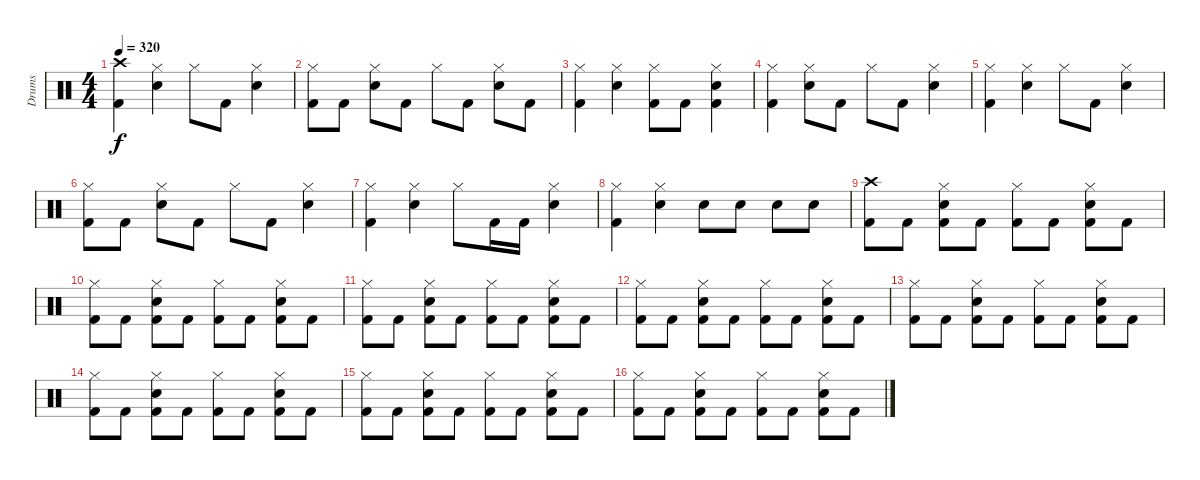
\track ("Drums" "Drums") {instrument percussion}
\staff {score}
\articulation defaults
\ts (4 4)
\tempo 320
\clef neutral
\ks c
("Kick (hit) 2" "Crash high (hit)").4{dy f} ("Snare (hit) 2" "Hi-Hat (closed)").4 "Hi-Hat (closed)".8 "Kick (hit) 2".8 ("Hi-Hat (closed)" "Snare (hit) 2").4 |
("Kick (hit) 2" "Hi-Hat (closed)").8 "Kick (hit) 2".8 ("Snare (hit) 2" "Hi-Hat (closed)").8 "Kick (hit) 2".8 "Hi-Hat (closed)".8 "Kick (hit) 2".8 ("Snare (hit) 2" "Hi-Hat (closed)").8 "Kick (hit) 2".8 |
("Kick (hit) 2" "Hi-Hat (closed)").4 ("Snare (hit) 2" "Hi-Hat (closed)").4 ("Hi-Hat (closed)" "Kick (hit) 2").8 "Kick (hit) 2".8 ("Snare (hit) 2" "Kick (hit) 2" "Hi-Hat (closed)").4 |
("Kick (hit) 2" "Hi-Hat (closed)").4 ("Hi-Hat (closed)" "Snare (hit) 2").8 "Kick (hit) 2".8 "Hi-Hat (closed)".8 "Kick (hit) 2".8 ("Hi-Hat (closed)" "Snare (hit) 2").4 |
("Kick (hit) 2" "Hi-Hat (closed)").4 ("Snare (hit) 2" "Hi-Hat (closed)").4 "Hi-Hat (closed)".8 "Kick (hit) 2".8 ("Snare (hit) 2" "Hi-Hat (closed)").4 |
("Kick (hit) 2" "Hi-Hat (closed)").8 "Kick (hit) 2".8 ("Snare (hit) 2" "Hi-Hat (closed)").8 "Kick (hit) 2".8 "Hi-Hat (closed)".8 "Kick (hit) 2".8 ("Hi-Hat (closed)" "Snare (hit) 2").4 |
("Kick (hit) 2" "Hi-Hat (closed)").4 ("Snare (hit) 2" "Hi-Hat (closed)").4 "Hi-Hat (closed)".8 "Kick (hit) 2".16 "Kick (hit) 2".16 ("Snare (hit) 2" "Hi-Hat (closed)").4 |
("Kick (hit) 2" "Hi-Hat (closed)").4 ("Snare (hit) 2" "Hi-Hat (closed)").4 "Snare (hit) 2".8 "Snare (hit) 2".8 "Snare (hit) 2".8 "Snare (hit) 2".8 |
("Kick (hit) 2" "Crash high (hit)").8 "Kick (hit) 2".8 ("Snare (hit) 2" "Hi-Hat (closed)" "Kick (hit) 2").8 "Kick (hit) 2".8 ("Hi-Hat (closed)" "Kick (hit) 2").8 "Kick (hit) 2".8 ("Hi-Hat (closed)" "Snare (hit) 2" "Kick (hit) 2").8 "Kick (hit) 2".8 |
("Kick (hit) 2" "Hi-Hat (closed)").8 "Kick (hit) 2".8 ("Snare (hit) 2" "Hi-Hat (closed)" "Kick (hit) 2").8 "Kick (hit) 2".8 ("Hi-Hat (closed)" "Kick (hit) 2").8 "Kick (hit) 2".8 ("Kick (hit) 2" "Snare (hit) 2" "Hi-Hat (closed)").8 "Kick (hit) 2".8 |
("Kick (hit) 2" "Hi-Hat (closed)").8 "Kick (hit) 2".8 ("Hi-Hat (closed)" "Kick (hit) 2" "Snare (hit) 2").8 "Kick (hit) 2".8 ("Hi-Hat (closed)" "Kick (hit) 2").8 "Kick (hit) 2".8 ("Kick (hit) 2" "Hi-Hat (closed)" "Snare (hit) 2").8 "Kick (hit) 2".8 |
("Kick (hit) 2" "Hi-Hat (closed)").8 "Kick (hit) 2".8 ("Snare (hit) 2" "Kick (hit) 2" "Hi-Hat (closed)").8 "Kick (hit) 2".8 ("Hi-Hat (closed)" "Kick (hit) 2").8 "Kick (hit) 2".8 ("Kick (hit) 2" "Snare (hit) 2" "Hi-Hat (closed)").8 "Kick (hit) 2".8 |
("Kick (hit) 2" "Hi-Hat (closed)").8 "Kick (hit) 2".8 ("Hi-Hat (closed)" "Kick (hit) 2" "Snare (hit) 2").8 "Kick (hit) 2".8 ("Hi-Hat (closed)" "Kick (hit) 2").8 "Kick (hit) 2".8 ("Hi-Hat (closed)" "Kick (hit) 2" "Snare (hit) 2").8 "Kick (hit) 2".8 |
("Kick (hit) 2" "Hi-Hat (closed)").8 "Kick (hit) 2".8 ("Hi-Hat (closed)" "Kick (hit) 2" "Snare (hit) 2").8 "Kick (hit) 2".8 ("Hi-Hat (closed)" "Kick (hit) 2").8 "Kick (hit) 2".8 ("Snare (hit) 2" "Hi-Hat (closed)" "Kick (hit) 2").8 "Kick (hit) 2".8 |
("Kick (hit) 2" "Hi-Hat (closed)").8 "Kick (hit) 2".8 ("Snare (hit) 2" "Hi-Hat (closed)" "Kick (hit) 2").8 "Kick (hit) 2".8 ("Kick (hit) 2" "Hi-Hat (closed)").8 "Kick (hit) 2".8 ("Kick (hit) 2" "Hi-Hat (closed)" "Snare (hit) 2").8 "Kick (hit) 2".8 |
("Kick (hit) 2" "Hi-Hat (closed)").8 "Kick (hit) 2".8 ("Snare (hit) 2" "Kick (hit) 2" "Hi-Hat (closed)").8 "Kick (hit) 2".8 ("Hi-Hat (closed)" "Kick (hit) 2").8 "Kick (hit) 2".8 ("Hi-Hat (closed)" "Snare (hit) 2" "Kick (hit) 2").8 "Kick (hit) 2".8
